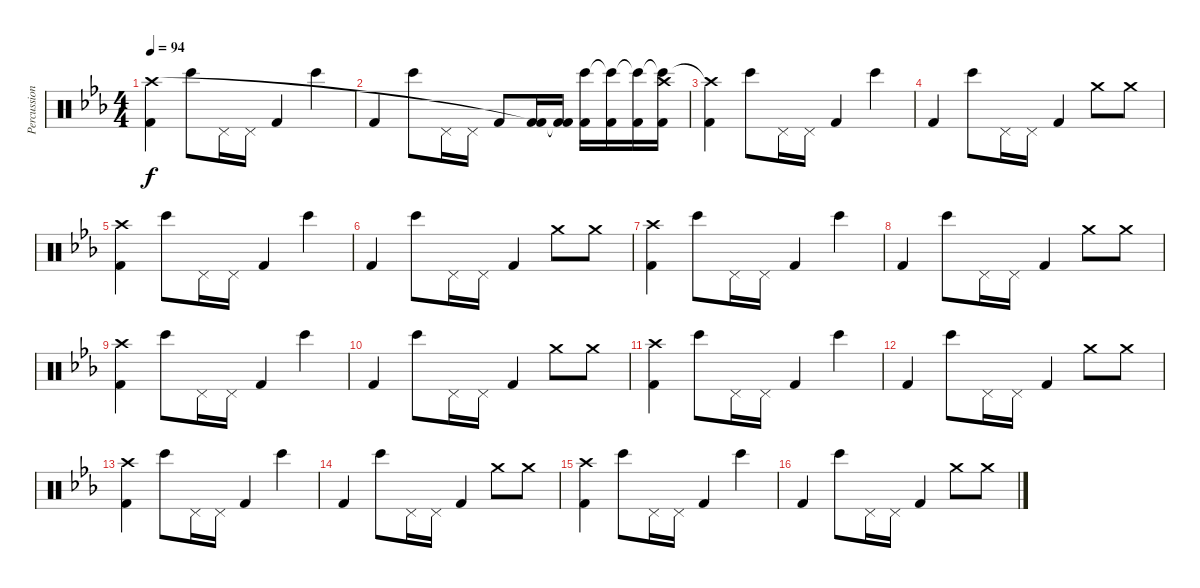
\track ("Percussion" "Percussion") {instrument percussion}
\staff {score}
\articulation defaults
\ts (4 4)
\tempo 94
\clef neutral
\ks eb
("Kick (hit) 2" "Crash high (hit)").4{dy f} "Bongo High (hit)".8 "Pedal Hi-Hat (hit)".16 "Pedal Hi-Hat (hit)".16 "Kick (hit) 2".4 "Bongo High (hit)".4 |
"Kick (hit) 2".4 "Bongo High (hit)".8 "Pedal Hi-Hat (hit)".16 "Pedal Hi-Hat (hit)".16 "Kick (hit) 2".8 ("Kick (hit) 2" "Kick (hit) 2"{t}).16 ("Kick (hit) 2" "Kick (hit) 2"{t}).16 ("Kick (hit) 2" "Bongo High (hit)").16 ("Kick (hit) 2" "Bongo High (hit)"{t}).16 ("Kick (hit) 2" "Bongo High (hit)"{t}).16 ("Kick (hit) 2" "Bongo High (hit)"{t} "Crash high (hit)").16 |
("Kick (hit) 2" "Crash high (hit)"{t}).4 "Bongo High (hit)".8 "Pedal Hi-Hat (hit)".16 "Pedal Hi-Hat (hit)".16 "Kick (hit) 2".4 "Bongo High (hit)".4 |
"Kick (hit) 2".4 "Bongo High (hit)".8 "Pedal Hi-Hat (hit)".16 "Pedal Hi-Hat (hit)".16 "Kick (hit) 2".4 "Crash medium (hit)".8 "Crash medium (hit)".8 |
("Kick (hit) 2" "Crash high (hit)").4 "Bongo High (hit)".8 "Pedal Hi-Hat (hit)".16 "Pedal Hi-Hat (hit)".16 "Kick (hit) 2".4 "Bongo High (hit)".4 |
"Kick (hit) 2".4 "Bongo High (hit)".8 "Pedal Hi-Hat (hit)".16 "Pedal Hi-Hat (hit)".16 "Kick (hit) 2".4 "Crash medium (hit)".8 "Crash medium (hit)".8 |
("Kick (hit) 2" "Crash high (hit)").4 "Bongo High (hit)".8 "Pedal Hi-Hat (hit)".16 "Pedal Hi-Hat (hit)".16 "Kick (hit) 2".4 "Bongo High (hit)".4 |
"Kick (hit) 2".4 "Bongo High (hit)".8 "Pedal Hi-Hat (hit)".16 "Pedal Hi-Hat (hit)".16 "Kick (hit) 2".4 "Crash medium (hit)".8 "Crash medium (hit)".8 |
("Kick (hit) 2" "Crash high (hit)").4 "Bongo High (hit)".8 "Pedal Hi-Hat (hit)".16 "Pedal Hi-Hat (hit)".16 "Kick (hit) 2".4 "Bongo High (hit)".4 |
"Kick (hit) 2".4 "Bongo High (hit)".8 "Pedal Hi-Hat (hit)".16 "Pedal Hi-Hat (hit)".16 "Kick (hit) 2".4 "Crash medium (hit)".8 "Crash medium (hit)".8 |
("Kick (hit) 2" "Crash high (hit)").4 "Bongo High (hit)".8 "Pedal Hi-Hat (hit)".16 "Pedal Hi-Hat (hit)".16 "Kick (hit) 2".4 "Bongo High (hit)".4 |
"Kick (hit) 2".4 "Bongo High (hit)".8 "Pedal Hi-Hat (hit)".16 "Pedal Hi-Hat (hit)".16 "Kick (hit) 2".4 "Crash medium (hit)".8 "Crash medium (hit)".8 |
("Kick (hit) 2" "Crash high (hit)").4 "Bongo High (hit)".8 "Pedal Hi-Hat (hit)".16 "Pedal Hi-Hat (hit)".16 "Kick (hit) 2".4 "Bongo High (hit)".4 |
"Kick (hit) 2".4 "Bongo High (hit)".8 "Pedal Hi-Hat (hit)".16 "Pedal Hi-Hat (hit)".16 "Kick (hit) 2".4 "Crash medium (hit)".8 "Crash medium (hit)".8 |
("Kick (hit) 2" "Crash high (hit)").4 "Bongo High (hit)".8 "Pedal Hi-Hat (hit)".16 "Pedal Hi-Hat (hit)".16 "Kick (hit) 2".4 "Bongo High (hit)".4 |
"Kick (hit) 2".4 "Bongo High (hit)".8 "Pedal Hi-Hat (hit)".16 "Pedal Hi-Hat (hit)".16 "Kick (hit) 2".4 "Crash medium (hit)".8 "Crash medium (hit)".8
